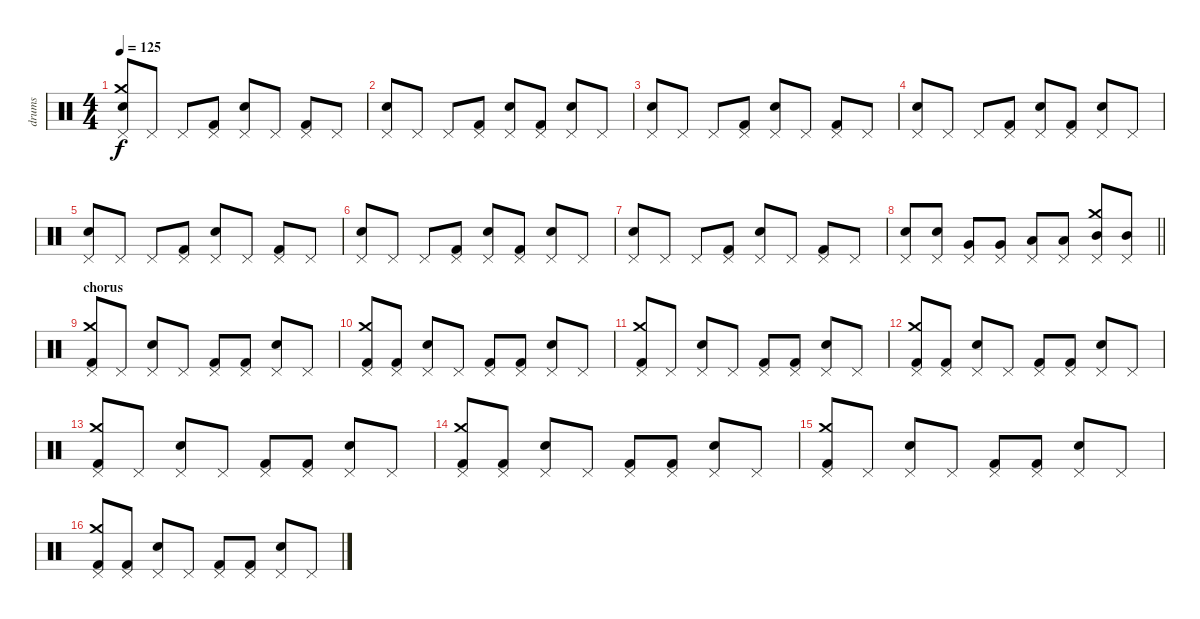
\track ("drums" "drums") {instrument percussion}
\staff {score}
\articulation defaults
\ts (4 4)
\tempo 125
\clef neutral
\ks c
("Pedal Hi-Hat (hit)" "Crash medium (hit)" "Snare (hit) 2").8{dy f} "Pedal Hi-Hat (hit)".8 "Pedal Hi-Hat (hit)".8 ("Pedal Hi-Hat (hit)" "Kick (hit) 2").8 ("Pedal Hi-Hat (hit)" "Snare (hit) 2").8 "Pedal Hi-Hat (hit)".8 ("Pedal Hi-Hat (hit)" "Kick (hit) 2").8 "Pedal Hi-Hat (hit)".8 |
("Pedal Hi-Hat (hit)" "Snare (hit) 2").8 "Pedal Hi-Hat (hit)".8 "Pedal Hi-Hat (hit)".8 ("Pedal Hi-Hat (hit)" "Kick (hit) 2").8 ("Pedal Hi-Hat (hit)" "Snare (hit) 2").8 ("Pedal Hi-Hat (hit)" "Kick (hit) 2").8 ("Pedal Hi-Hat (hit)" "Snare (hit) 2").8 "Pedal Hi-Hat (hit)".8 |
("Pedal Hi-Hat (hit)" "Snare (hit) 2").8 "Pedal Hi-Hat (hit)".8 "Pedal Hi-Hat (hit)".8 ("Pedal Hi-Hat (hit)" "Kick (hit) 2").8 ("Pedal Hi-Hat (hit)" "Snare (hit) 2").8 "Pedal Hi-Hat (hit)".8 ("Pedal Hi-Hat (hit)" "Kick (hit) 2").8 "Pedal Hi-Hat (hit)".8 |
("Pedal Hi-Hat (hit)" "Snare (hit) 2").8 "Pedal Hi-Hat (hit)".8 "Pedal Hi-Hat (hit)".8 ("Pedal Hi-Hat (hit)" "Kick (hit) 2").8 ("Pedal Hi-Hat (hit)" "Snare (hit) 2").8 ("Pedal Hi-Hat (hit)" "Kick (hit) 2").8 ("Pedal Hi-Hat (hit)" "Snare (hit) 2").8 "Pedal Hi-Hat (hit)".8 |
("Pedal Hi-Hat (hit)" "Snare (hit) 2").8 "Pedal Hi-Hat (hit)".8 "Pedal Hi-Hat (hit)".8 ("Pedal Hi-Hat (hit)" "Kick (hit) 2").8 ("Pedal Hi-Hat (hit)" "Snare (hit) 2").8 "Pedal Hi-Hat (hit)".8 ("Pedal Hi-Hat (hit)" "Kick (hit) 2").8 "Pedal Hi-Hat (hit)".8 |
("Pedal Hi-Hat (hit)" "Snare (hit) 2").8 "Pedal Hi-Hat (hit)".8 "Pedal Hi-Hat (hit)".8 ("Pedal Hi-Hat (hit)" "Kick (hit) 2").8 ("Pedal Hi-Hat (hit)" "Snare (hit) 2").8 ("Pedal Hi-Hat (hit)" "Kick (hit) 2").8 ("Pedal Hi-Hat (hit)" "Snare (hit) 2").8 "Pedal Hi-Hat (hit)".8 |
("Pedal Hi-Hat (hit)" "Snare (hit) 2").8 "Pedal Hi-Hat (hit)".8 "Pedal Hi-Hat (hit)".8 ("Pedal Hi-Hat (hit)" "Kick (hit) 2").8 ("Pedal Hi-Hat (hit)" "Snare (hit) 2").8 "Pedal Hi-Hat (hit)".8 ("Pedal Hi-Hat (hit)" "Kick (hit) 2").8 "Pedal Hi-Hat (hit)".8 |
\barLineRight lightlight
("Pedal Hi-Hat (hit)" "Snare (hit) 2").8 ("Pedal Hi-Hat (hit)" "Snare (hit) 2").8 ("Pedal Hi-Hat (hit)" "Very Low Tom (hit)").8 ("Pedal Hi-Hat (hit)" "Very Low Tom (hit)").8 ("Pedal Hi-Hat (hit)" "Low Tom (hit)").8 ("Pedal Hi-Hat (hit)" "Low Tom (hit)").8 ("Pedal Hi-Hat (hit)" "Crash medium (hit)" "Mid Tom (hit)").8 ("Pedal Hi-Hat (hit)" "Mid Tom (hit)").8 |
\section ("" "chorus")
("Pedal Hi-Hat (hit)" "Crash medium (hit)" "Kick (hit) 2").8 "Pedal Hi-Hat (hit)".8 ("Pedal Hi-Hat (hit)" "Snare (hit) 2").8 "Pedal Hi-Hat (hit)".8 ("Pedal Hi-Hat (hit)" "Kick (hit) 2").8 ("Pedal Hi-Hat (hit)" "Kick (hit) 2").8 ("Pedal Hi-Hat (hit)" "Snare (hit) 2").8 "Pedal Hi-Hat (hit)".8 |
("Pedal Hi-Hat (hit)" "Crash medium (hit)" "Kick (hit) 2").8 ("Pedal Hi-Hat (hit)" "Kick (hit) 2").8 ("Pedal Hi-Hat (hit)" "Snare (hit) 2").8 "Pedal Hi-Hat (hit)".8 ("Pedal Hi-Hat (hit)" "Kick (hit) 2").8 ("Pedal Hi-Hat (hit)" "Kick (hit) 2").8 ("Pedal Hi-Hat (hit)" "Snare (hit) 2").8 "Pedal Hi-Hat (hit)".8 |
("Pedal Hi-Hat (hit)" "Crash medium (hit)" "Kick (hit) 2").8 "Pedal Hi-Hat (hit)".8 ("Pedal Hi-Hat (hit)" "Snare (hit) 2").8 "Pedal Hi-Hat (hit)".8 ("Pedal Hi-Hat (hit)" "Kick (hit) 2").8 ("Pedal Hi-Hat (hit)" "Kick (hit) 2").8 ("Pedal Hi-Hat (hit)" "Snare (hit) 2").8 "Pedal Hi-Hat (hit)".8 |
("Pedal Hi-Hat (hit)" "Crash medium (hit)" "Kick (hit) 2").8 ("Pedal Hi-Hat (hit)" "Kick (hit) 2").8 ("Pedal Hi-Hat (hit)" "Snare (hit) 2").8 "Pedal Hi-Hat (hit)".8 ("Pedal Hi-Hat (hit)" "Kick (hit) 2").8 ("Pedal Hi-Hat (hit)" "Kick (hit) 2").8 ("Pedal Hi-Hat (hit)" "Snare (hit) 2").8 "Pedal Hi-Hat (hit)".8 |
("Pedal Hi-Hat (hit)" "Crash medium (hit)" "Kick (hit) 2").8 "Pedal Hi-Hat (hit)".8 ("Pedal Hi-Hat (hit)" "Snare (hit) 2").8 "Pedal Hi-Hat (hit)".8 ("Pedal Hi-Hat (hit)" "Kick (hit) 2").8 ("Pedal Hi-Hat (hit)" "Kick (hit) 2").8 ("Pedal Hi-Hat (hit)" "Snare (hit) 2").8 "Pedal Hi-Hat (hit)".8 |
("Pedal Hi-Hat (hit)" "Crash medium (hit)" "Kick (hit) 2").8 ("Pedal Hi-Hat (hit)" "Kick (hit) 2").8 ("Pedal Hi-Hat (hit)" "Snare (hit) 2").8 "Pedal Hi-Hat (hit)".8 ("Pedal Hi-Hat (hit)" "Kick (hit) 2").8 ("Pedal Hi-Hat (hit)" "Kick (hit) 2").8 ("Pedal Hi-Hat (hit)" "Snare (hit) 2").8 "Pedal Hi-Hat (hit)".8 |
("Pedal Hi-Hat (hit)" "Crash medium (hit)" "Kick (hit) 2").8 "Pedal Hi-Hat (hit)".8 ("Pedal Hi-Hat (hit)" "Snare (hit) 2").8 "Pedal Hi-Hat (hit)".8 ("Pedal Hi-Hat (hit)" "Kick (hit) 2").8 ("Pedal Hi-Hat (hit)" "Kick (hit) 2").8 ("Pedal Hi-Hat (hit)" "Snare (hit) 2").8 "Pedal Hi-Hat (hit)".8 |
("Pedal Hi-Hat (hit)" "Crash medium (hit)" "Kick (hit) 2").8 ("Pedal Hi-Hat (hit)" "Kick (hit) 2").8 ("Pedal Hi-Hat (hit)" "Snare (hit) 2").8 "Pedal Hi-Hat (hit)".8 ("Pedal Hi-Hat (hit)" "Kick (hit) 2").8 ("Pedal Hi-Hat (hit)" "Kick (hit) 2").8 ("Pedal Hi-Hat (hit)" "Snare (hit) 2").8 "Pedal Hi-Hat (hit)".8
